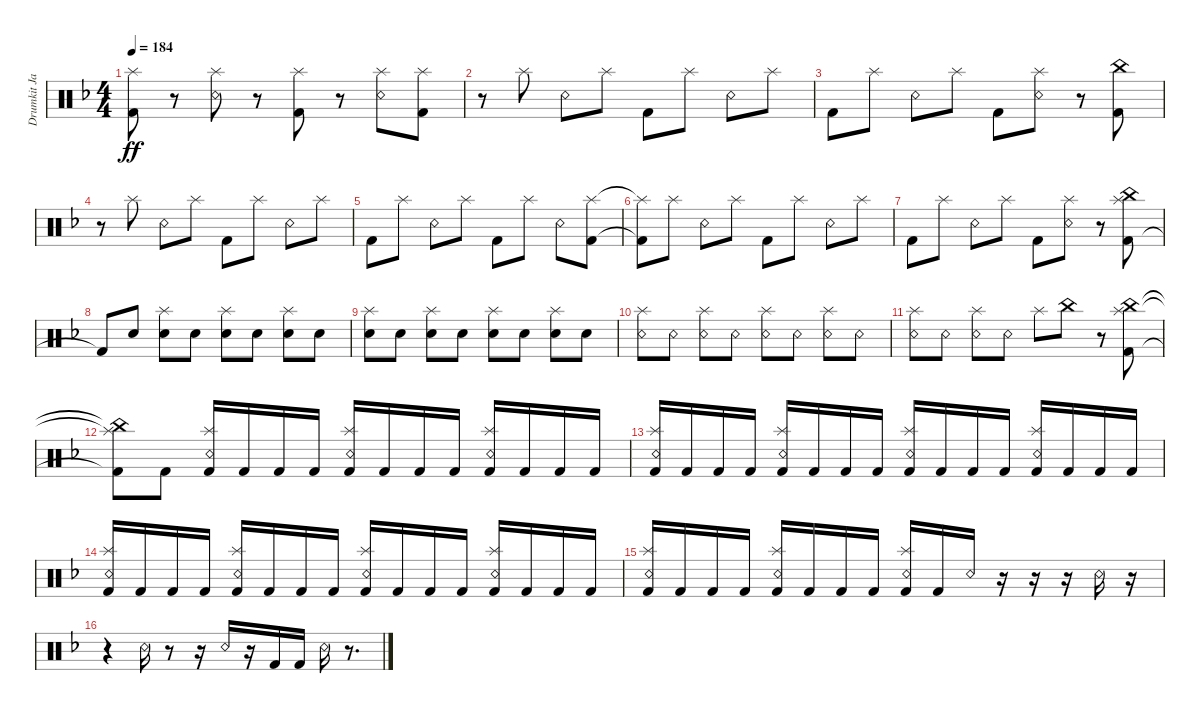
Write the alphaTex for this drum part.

\track ("Drumkit Jason" "Drumkit Ja") {instrument percussion}
\staff {score}
\articulation defaults
\ts (4 4)
\tempo 184
\clef neutral
\ks dminor
("Kick (hit) 2" "Splash (hit)").8{dy ff} r.8 ("Snare (rim shot)" "Splash (hit)").8 r.8 ("Kick (hit) 2" "Splash (hit)").8 r.8 ("Snare (rim shot)" "Splash (hit)").8 ("Kick (hit) 2" "Splash (hit)").8 |
r.8 "Splash (hit)".8 "Snare (rim shot)".8 "Splash (hit)".8 "Kick (hit) 2".8 "Splash (hit)".8 "Snare (rim shot)".8 "Splash (hit)".8 |
"Kick (hit) 2".8 "Splash (hit)".8 "Snare (rim shot)".8 "Splash (hit)".8 "Kick (hit) 2".8 ("Snare (rim shot)" "Splash (hit)").8 r.8 ("Kick (hit) 2" "China (hit)").8 |
r.8 "Splash (hit)".8 "Snare (rim shot)".8 "Splash (hit)".8 "Kick (hit) 2".8 "Splash (hit)".8 "Snare (rim shot)".8 "Splash (hit)".8 |
"Kick (hit) 2".8 "Splash (hit)".8 "Snare (rim shot)".8 "Splash (hit)".8 "Kick (hit) 2".8 "Splash (hit)".8 "Snare (rim shot)".8 ("Splash (hit)" "Kick (hit) 2").8 |
("Splash (hit)"{t} "Kick (hit) 2"{t}).8 "Splash (hit)".8 "Snare (rim shot)".8 "Splash (hit)".8 "Kick (hit) 2".8 "Splash (hit)".8 "Snare (rim shot)".8 "Splash (hit)".8 |
"Kick (hit) 2".8 "Splash (hit)".8 "Snare (rim shot)".8 "Splash (hit)".8 "Kick (hit) 2".8 ("Splash (hit)" "Snare (rim shot)").8 r.8 ("Kick (hit) 2" "Splash (hit)" "China (hit)").8 |
"Kick (hit) 2"{t}.8 "Snare (hit) 2".8 ("Snare (hit) 2" "Splash (hit)").8 "Snare (hit) 2".8 ("Snare (hit) 2" "Splash (hit)").8 "Snare (hit) 2".8 ("Snare (hit) 2" "Splash (hit)").8 "Snare (hit) 2".8 |
("Snare (hit) 2" "Splash (hit)").8 "Snare (hit) 2".8 ("Snare (hit) 2" "Splash (hit)").8 "Snare (hit) 2".8 ("Snare (hit) 2" "Splash (hit)").8 "Snare (hit) 2".8 ("Snare (hit) 2" "Splash (hit)").8 "Snare (hit) 2".8 |
("Snare (rim shot)" "Splash (hit)").8 "Snare (rim shot)".8 ("Snare (rim shot)" "Splash (hit)").8 "Snare (rim shot)".8 ("Snare (rim shot)" "Splash (hit)").8 "Snare (rim shot)".8 ("Snare (rim shot)" "Splash (hit)").8 "Snare (rim shot)".8 |
("Snare (rim shot)" "Splash (hit)").8 "Snare (rim shot)".8 ("Snare (rim shot)" "Splash (hit)").8 "Snare (rim shot)".8 "Splash (hit)".8 "China (hit)".8 r.8 ("Kick (hit) 2" "China (hit)" "Splash (hit)").8 |
("Kick (hit) 2"{t} "China (hit)"{t} "Splash (hit)"{t}).8 "Kick (hit) 2".8 ("Kick (hit) 2" "Snare (rim shot)" "Splash (hit)").16 "Kick (hit) 2".16 "Kick (hit) 2".16 "Kick (hit) 2".16 ("Kick (hit) 2" "Snare (rim shot)" "Splash (hit)").16 "Kick (hit) 2".16 "Kick (hit) 2".16 "Kick (hit) 2".16 ("Kick (hit) 2" "Snare (rim shot)" "Splash (hit)").16 "Kick (hit) 2".16 "Kick (hit) 2".16 "Kick (hit) 2".16 |
("Kick (hit) 2" "Snare (rim shot)" "Splash (hit)").16 "Kick (hit) 2".16 "Kick (hit) 2".16 "Kick (hit) 2".16 ("Kick (hit) 2" "Snare (rim shot)" "Splash (hit)").16 "Kick (hit) 2".16 "Kick (hit) 2".16 "Kick (hit) 2".16 ("Kick (hit) 2" "Snare (rim shot)" "Splash (hit)").16 "Kick (hit) 2".16 "Kick (hit) 2".16 "Kick (hit) 2".16 ("Kick (hit) 2" "Snare (rim shot)" "Splash (hit)").16 "Kick (hit) 2".16 "Kick (hit) 2".16 "Kick (hit) 2".16 |
("Kick (hit) 2" "Snare (rim shot)" "Splash (hit)").16 "Kick (hit) 2".16 "Kick (hit) 2".16 "Kick (hit) 2".16 ("Kick (hit) 2" "Snare (rim shot)" "Splash (hit)").16 "Kick (hit) 2".16 "Kick (hit) 2".16 "Kick (hit) 2".16 ("Kick (hit) 2" "Snare (rim shot)" "Splash (hit)").16 "Kick (hit) 2".16 "Kick (hit) 2".16 "Kick (hit) 2".16 ("Kick (hit) 2" "Snare (rim shot)" "Splash (hit)").16 "Kick (hit) 2".16 "Kick (hit) 2".16 "Kick (hit) 2".16 |
("Kick (hit) 2" "Snare (rim shot)" "Splash (hit)").16 "Kick (hit) 2".16 "Kick (hit) 2".16 "Kick (hit) 2".16 ("Kick (hit) 2" "Snare (rim shot)" "Splash (hit)").16 "Kick (hit) 2".16 "Kick (hit) 2".16 "Kick (hit) 2".16 ("Kick (hit) 2" "Snare (rim shot)" "Splash (hit)").16 "Kick (hit) 2".16 "Snare (rim shot)".16 r.16 r.16 r.16 "Snare (rim shot)".16 r.16 |
r.4 "Snare (rim shot)".16 r.8 r.16 "Snare (rim shot)".16 r.16 "Kick (hit) 2".16 "Kick (hit) 2".16 "Snare (rim shot)".16 r.8{d}
